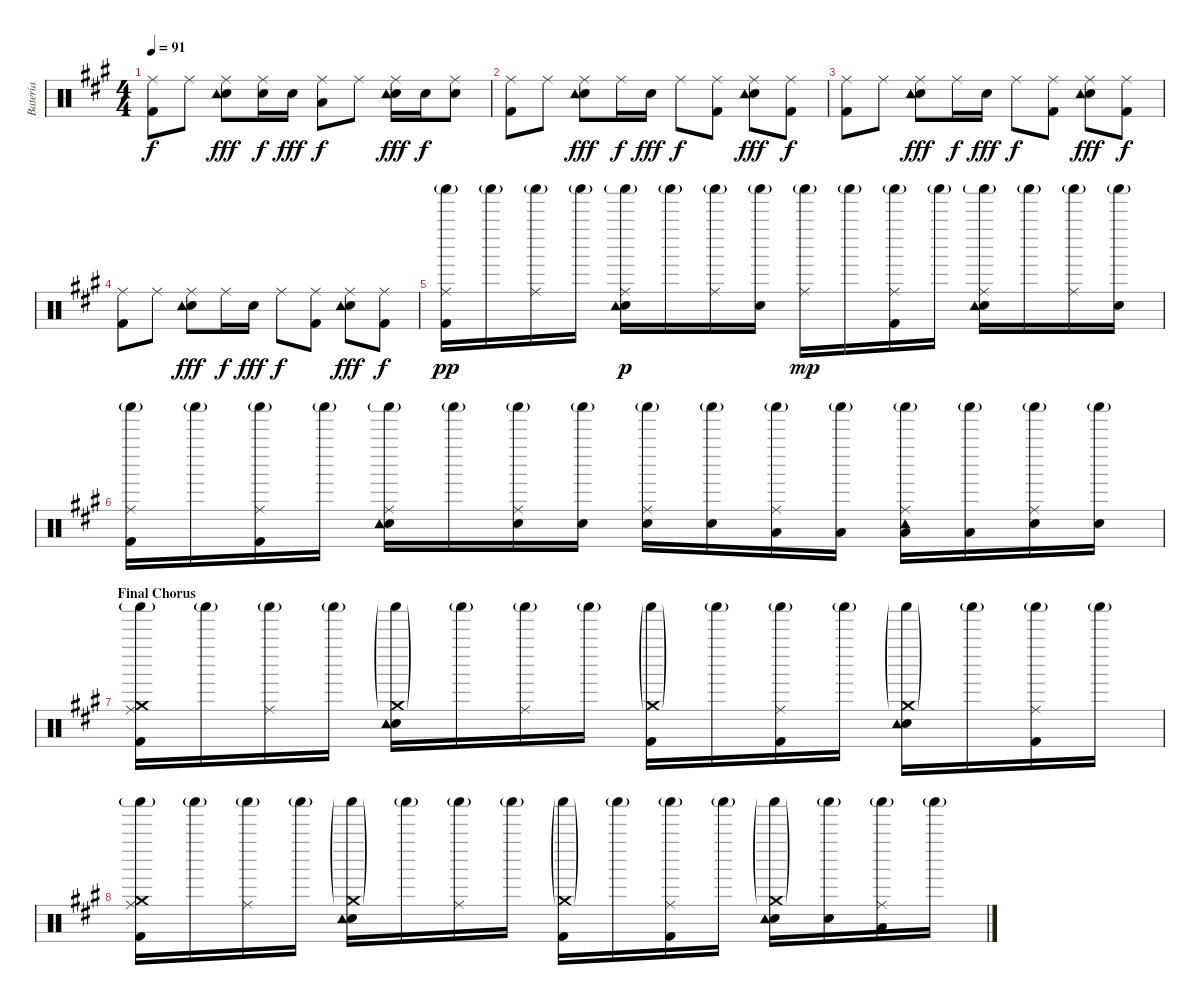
\track ("Batería" "Batería") {instrument percussion}
\staff {score}
\articulation defaults
\ts (4 4)
\tempo 91
\clef neutral
\ks a
("Kick (hit) 2" "Ride (middle)").8{dy f} "Ride (middle)".8 ("Electric Snare (hit)" "Ride (middle)" "Tambourine (hit)").8{dy fff} ("Electric Snare (hit)" "Ride (middle)").16{dy f} "Electric Snare (hit)".16{dy fff} ("Ride (middle)" "Low Tom (hit)").8{dy f} "Ride (middle)".8 ("Electric Snare (hit)" "Ride (middle)" "Tambourine (hit)").16{dy fff} "Electric Snare (hit)".16{dy f} ("Electric Snare (hit)" "Ride (middle)").8 |
("Kick (hit) 2" "Ride (middle)").8 "Ride (middle)".8 ("Electric Snare (hit)" "Ride (middle)" "Tambourine (hit)").8{dy fff} "Ride (middle)".16{dy f} "Electric Snare (hit)".16{dy fff} "Ride (middle)".8{dy f} ("Kick (hit) 2" "Ride (middle)").8 ("Electric Snare (hit)" "Ride (middle)" "Tambourine (hit)").8{dy fff} ("Kick (hit) 2" "Ride (middle)").8{dy f} |
("Kick (hit) 2" "Ride (middle)").8 "Ride (middle)".8 ("Electric Snare (hit)" "Ride (middle)" "Tambourine (hit)").8{dy fff} "Ride (middle)".16{dy f} "Electric Snare (hit)".16{dy fff} "Ride (middle)".8{dy f} ("Kick (hit) 2" "Ride (middle)").8 ("Electric Snare (hit)" "Ride (middle)" "Tambourine (hit)").8{dy fff} ("Kick (hit) 2" "Ride (middle)").8{dy f} |
("Kick (hit) 2" "Ride (middle)").8 "Ride (middle)".8 ("Electric Snare (hit)" "Ride (middle)" "Tambourine (hit)").8{dy fff} "Ride (middle)".16{dy f} "Electric Snare (hit)".16{dy fff} "Ride (middle)".8{dy f} ("Kick (hit) 2" "Ride (middle)").8 ("Electric Snare (hit)" "Ride (middle)" "Tambourine (hit)").8{dy fff} ("Kick (hit) 2" "Ride (middle)").8{dy f} |
("Kick (hit) 2" "Ride (middle)" "Shaker (hit)"{g}).16{dy pp} "Shaker (hit)"{g}.16 ("Ride (middle)" "Shaker (hit)"{g}).16 "Shaker (hit)"{g}.16 ("Electric Snare (hit)" "Ride (middle)" "Tambourine (hit)" "Shaker (hit)"{g}).16{dy p} "Shaker (hit)"{g}.16 ("Ride (middle)" "Shaker (hit)"{g}).16 ("Electric Snare (hit)" "Shaker (hit)"{g}).16 ("Ride (middle)" "Shaker (hit)"{g}).16{dy mp} "Shaker (hit)"{g}.16 ("Kick (hit) 2" "Ride (middle)" "Shaker (hit)"{g}).16 "Shaker (hit)"{g}.16 ("Electric Snare (hit)" "Ride (middle)" "Tambourine (hit)" "Shaker (hit)"{g}).16 "Shaker (hit)"{g}.16 ("Ride (middle)" "Shaker (hit)"{g}).16 ("Electric Snare (hit)" "Shaker (hit)"{g}).16 |
("Kick (hit) 2" "Ride (middle)" "Shaker (hit)"{g}).16 "Shaker (hit)"{g}.16 ("Kick (hit) 2" "Ride (middle)" "Shaker (hit)"{g}).16 "Shaker (hit)"{g}.16 ("Electric Snare (hit)" "Ride (middle)" "Tambourine (hit)" "Shaker (hit)"{g}).16 "Shaker (hit)"{g}.16 ("Electric Snare (hit)" "Ride (middle)" "Shaker (hit)"{g}).16 ("Electric Snare (hit)" "Shaker (hit)"{g}).16 ("Electric Snare (hit)" "Ride (middle)" "Shaker (hit)"{g}).16 ("Electric Snare (hit)" "Shaker (hit)"{g}).16 ("Ride (middle)" "Low Tom (hit)" "Shaker (hit)"{g}).16 ("Low Tom (hit)" "Shaker (hit)"{g}).16 ("Ride (middle)" "Low Tom (hit)" "Tambourine (hit)" "Shaker (hit)"{g}).16 ("Low Tom (hit)" "Shaker (hit)"{g}).16 ("Electric Snare (hit)" "Ride (middle)" "Shaker (hit)"{g}).16 ("Electric Snare (hit)" "Shaker (hit)"{g}).16 |
\section ("" "Final Chorus")
("Kick (hit) 2" "Ride (middle)" "Crash medium (hit)" "Shaker (hit)"{g}).16 "Shaker (hit)"{g}.16 ("Ride (middle)" "Shaker (hit)"{g}).16 "Shaker (hit)"{g}.16 ("Electric Snare (hit)" "Crash medium (hit)"{g} "Tambourine (hit)" "Shaker (hit)"{g}).16 "Shaker (hit)"{g}.16 ("Ride (middle)" "Shaker (hit)"{g}).16 "Shaker (hit)"{g}.16 ("Kick (hit) 2" "Crash medium (hit)"{g} "Shaker (hit)"{g}).16 "Shaker (hit)"{g}.16 ("Kick (hit) 2" "Ride (middle)" "Shaker (hit)"{g}).16 "Shaker (hit)"{g}.16 ("Electric Snare (hit)" "Crash medium (hit)"{g} "Tambourine (hit)" "Shaker (hit)"{g}).16 "Shaker (hit)"{g}.16 ("Kick (hit) 2" "Ride (middle)" "Shaker (hit)"{g}).16 "Shaker (hit)"{g}.16 |
("Kick (hit) 2" "Ride (middle)" "Crash medium (hit)" "Shaker (hit)"{g}).16 "Shaker (hit)"{g}.16 ("Ride (middle)" "Shaker (hit)"{g}).16 "Shaker (hit)"{g}.16 ("Electric Snare (hit)" "Crash medium (hit)"{g} "Tambourine (hit)" "Shaker (hit)"{g}).16 "Shaker (hit)"{g}.16 ("Ride (middle)" "Shaker (hit)"{g}).16 "Shaker (hit)"{g}.16 ("Kick (hit) 2" "Crash medium (hit)"{g} "Shaker (hit)"{g}).16 "Shaker (hit)"{g}.16 ("Kick (hit) 2" "Ride (middle)" "Shaker (hit)"{g}).16 "Shaker (hit)"{g}.16 ("Electric Snare (hit)" "Crash medium (hit)"{g} "Tambourine (hit)" "Shaker (hit)"{g}).16 ("Electric Snare (hit)" "Shaker (hit)"{g}).16 ("Ride (middle)" "Low Tom (hit)" "Shaker (hit)"{g}).16 "Shaker (hit)"{g}.16
